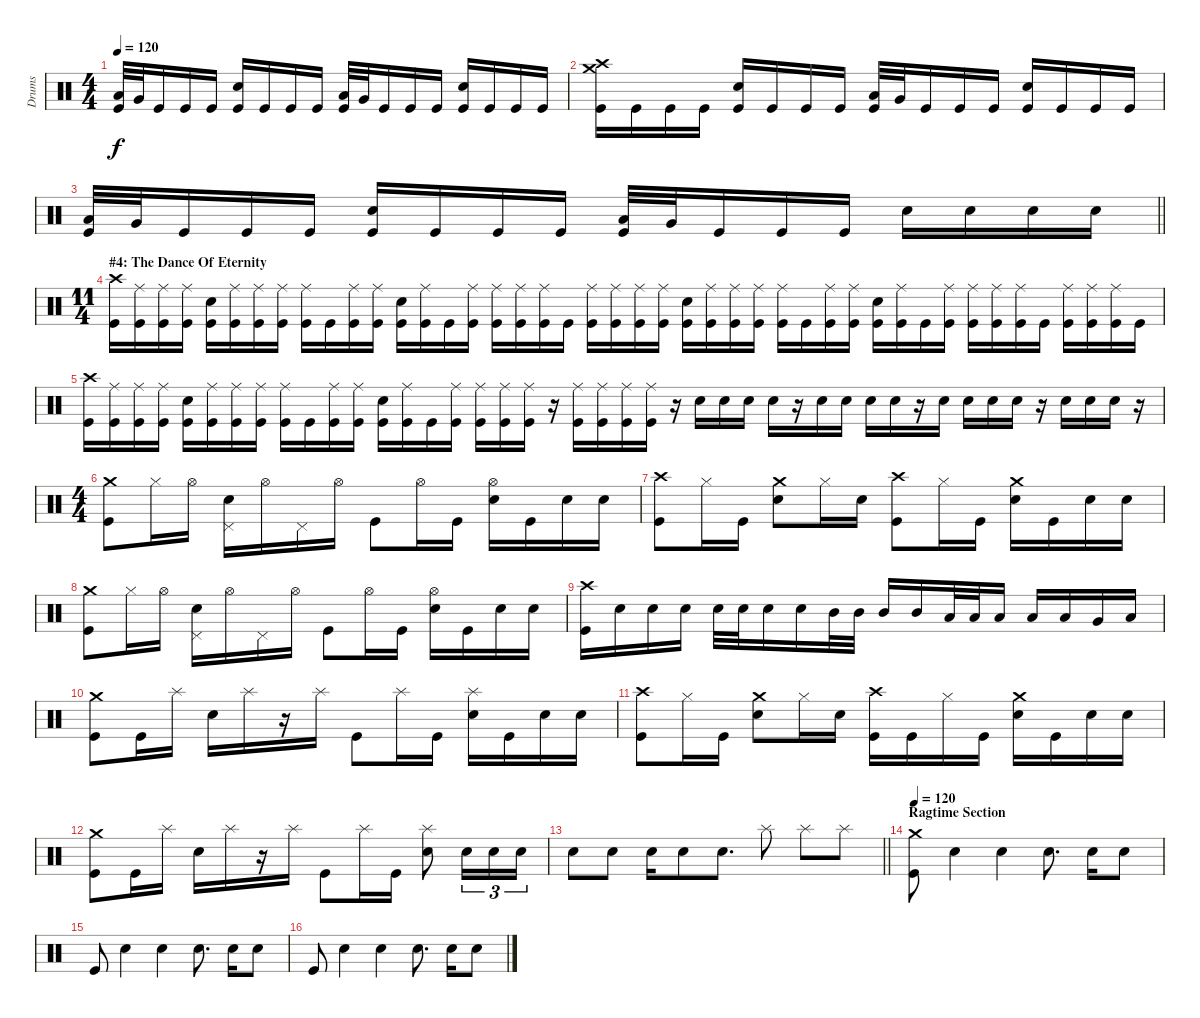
\track ("Drums" "Drums") {instrument percussion}
\staff {score}
\articulation defaults
\ts (4 4)
\tempo 120
\clef neutral
\ks c
("Low Tom (hit)" "Kick (hit)").32{dy f} "Very Low Tom (hit)".32 "Kick (hit)".16 "Kick (hit)".16 "Kick (hit)".16 ("Snare (hit) 2" "Kick (hit)").16 "Kick (hit)".16 "Kick (hit)".16 "Kick (hit)".16 ("Low Tom (hit)" "Kick (hit)").32 "Very Low Tom (hit)".32 "Kick (hit)".16 "Kick (hit)".16 "Kick (hit)".16 ("Snare (hit) 2" "Kick (hit)").16 "Kick (hit)".16 "Kick (hit)".16 "Kick (hit)".16 |
("Crash high (hit)" "Crash medium (hit)" "Kick (hit)").16 "Kick (hit)".16 "Kick (hit)".16 "Kick (hit)".16 ("Snare (hit) 2" "Kick (hit)").16 "Kick (hit)".16 "Kick (hit)".16 "Kick (hit)".16 ("Low Tom (hit)" "Kick (hit)").32 "Very Low Tom (hit)".32 "Kick (hit)".16 "Kick (hit)".16 "Kick (hit)".16 ("Snare (hit) 2" "Kick (hit)").16 "Kick (hit)".16 "Kick (hit)".16 "Kick (hit)".16 |
\barLineRight lightlight
("Low Tom (hit)" "Kick (hit)").32 "Very Low Tom (hit)".32 "Kick (hit)".16 "Kick (hit)".16 "Kick (hit)".16 ("Snare (hit) 2" "Kick (hit)").16 "Kick (hit)".16 "Kick (hit)".16 "Kick (hit)".16 ("Low Tom (hit)" "Kick (hit)").32 "Very Low Tom (hit)".32 "Kick (hit)".16 "Kick (hit)".16 "Kick (hit)".16 "Snare (hit) 2".16 "Snare (hit) 2".16 "Snare (hit) 2".16 "Snare (hit) 2".16 |
\ts (11 4)
\section ("" "#4: The Dance Of Eternity")
("Crash high (hit)" "Kick (hit)").16 ("Ride (middle)" "Kick (hit)").16 ("Ride (middle)" "Kick (hit)").16 ("Ride (middle)" "Kick (hit)").16 ("Snare (hit) 2" "Kick (hit)").16 ("Ride (middle)" "Kick (hit)").16 ("Ride (middle)" "Kick (hit)").16 ("Ride (middle)" "Kick (hit)").16 ("Ride (middle)" "Kick (hit)").16 "Kick (hit)".16 ("Ride (middle)" "Kick (hit)").16 ("Ride (middle)" "Kick (hit)").16 ("Snare (hit) 2" "Kick (hit)").16 ("Ride (middle)" "Kick (hit)").16 "Kick (hit)".16 ("Ride (middle)" "Kick (hit)").16 ("Ride (middle)" "Kick (hit)").16 ("Ride (middle)" "Kick (hit)").16 ("Ride (middle)" "Kick (hit)").16 "Kick (hit)".16 ("Ride (middle)" "Kick (hit)").16 ("Ride (middle)" "Kick (hit)").16 ("Ride (middle)" "Kick (hit)").16 ("Ride (middle)" "Kick (hit)").16 ("Snare (hit) 2" "Kick (hit)").16 ("Ride (middle)" "Kick (hit)").16 ("Ride (middle)" "Kick (hit)").16 ("Ride (middle)" "Kick (hit)").16 ("Ride (middle)" "Kick (hit)").16 "Kick (hit)".16 ("Ride (middle)" "Kick (hit)").16 ("Ride (middle)" "Kick (hit)").16 ("Snare (hit) 2" "Kick (hit)").16 ("Ride (middle)" "Kick (hit)").16 "Kick (hit)".16 ("Ride (middle)" "Kick (hit)").16 ("Ride (middle)" "Kick (hit)").16 ("Ride (middle)" "Kick (hit)").16 ("Ride (middle)" "Kick (hit)").16 "Kick (hit)".16 ("Ride (middle)" "Kick (hit)").16 ("Ride (middle)" "Kick (hit)").16 ("Ride (middle)" "Kick (hit)").16 "Kick (hit)".16 |
("Crash high (hit)" "Kick (hit)").16 ("Ride (middle)" "Kick (hit)").16 ("Ride (middle)" "Kick (hit)").16 ("Ride (middle)" "Kick (hit)").16 ("Snare (hit) 2" "Kick (hit)").16 ("Ride (middle)" "Kick (hit)").16 ("Ride (middle)" "Kick (hit)").16 ("Ride (middle)" "Kick (hit)").16 ("Ride (middle)" "Kick (hit)").16 "Kick (hit)".16 ("Ride (middle)" "Kick (hit)").16 ("Ride (middle)" "Kick (hit)").16 ("Snare (hit) 2" "Kick (hit)").16 ("Ride (middle)" "Kick (hit)").16 "Kick (hit)".16 ("Ride (middle)" "Kick (hit)").16 ("Ride (middle)" "Kick (hit)").16 ("Ride (middle)" "Kick (hit)").16 ("Ride (middle)" "Kick (hit)").16 r.16 ("Ride (middle)" "Kick (hit)").16 ("Ride (middle)" "Kick (hit)").16 ("Ride (middle)" "Kick (hit)").16 ("Ride (middle)" "Kick (hit)").16 r.16 "Snare (hit) 2".16 "Snare (hit) 2".16 "Snare (hit) 2".16 "Snare (hit) 2".16 r.16 "Snare (hit) 2".16 "Snare (hit) 2".16 "Snare (hit) 2".16 "Snare (hit) 2".16 r.16 "Snare (hit) 2".16 "Snare (hit) 2".16 "Snare (hit) 2".16 "Snare (hit) 2".16 r.16 "Snare (hit) 2".16 "Snare (hit) 2".16 "Snare (hit) 2".16 r.16 |
\ts (4 4)
("Crash medium (hit)" "Kick (hit)").8 "Hi-Hat (closed)".16 "Hi-Hat (open)".16 ("Pedal Hi-Hat (hit)" "Snare (hit) 2").16 "Hi-Hat (open)".16 "Pedal Hi-Hat (hit)".16 "Hi-Hat (open)".16 "Kick (hit)".8 "Hi-Hat (open)".16 "Kick (hit)".16 ("Hi-Hat (open)" "Snare (hit) 2").16 "Kick (hit)".16 "Snare (hit) 2".16 "Snare (hit) 2".16 |
("Crash high (hit)" "Kick (hit)").8 "Hi-Hat (closed)".16 "Kick (hit)".16 ("Crash medium (hit)" "Snare (hit) 2").8 "Hi-Hat (closed)".16 "Snare (hit) 2".16 ("Crash high (hit)" "Kick (hit)").8 "Hi-Hat (closed)".16 "Kick (hit)".16 ("Crash medium (hit)" "Snare (hit) 2").16 "Kick (hit)".16 "Snare (hit) 2".16 "Snare (hit) 2".16 |
("Crash medium (hit)" "Kick (hit)").8 "Hi-Hat (closed)".16 "Hi-Hat (open)".16 ("Pedal Hi-Hat (hit)" "Snare (hit) 2").16 "Hi-Hat (open)".16 "Pedal Hi-Hat (hit)".16 "Hi-Hat (open)".16 "Kick (hit)".8 "Hi-Hat (open)".16 "Kick (hit)".16 ("Hi-Hat (open)" "Snare (hit) 2").16 "Kick (hit)".16 "Snare (hit) 2".16 "Snare (hit) 2".16 |
("Crash high (hit)" "Kick (hit)").16 "Snare (hit) 2".16 "Snare (hit) 2".16 "Snare (hit) 2".16 "Snare (hit) 2".32 "Snare (hit) 2".32 "Snare (hit) 2".16 "Snare (hit) 2".16 "Mid Tom (hit)".32 "Mid Tom (hit)".32 "Mid Tom (hit)".16 "Mid Tom (hit)".16 "Low Tom (hit)".32 "Low Tom (hit)".32 "Low Tom (hit)".16 "Low Tom (hit)".16 "Low Tom (hit)".16 "Very Low Tom (hit)".16 "Low Floor Tom (hit)".16 |
("Crash medium (hit)" "Kick (hit)").8 "Kick (hit)".16 "Splash (hit)".16 "Snare (hit) 2".16 "Splash (hit)".16 r.16 "Splash (hit)".16 "Kick (hit)".8 "Splash (hit)".16 "Kick (hit)".16 ("Splash (hit)" "Snare (hit) 2").16 "Kick (hit)".16 "Snare (hit) 2".16 "Snare (hit) 2".16 |
("Crash high (hit)" "Kick (hit)").8 "Hi-Hat (closed)".16 "Kick (hit)".16 ("Crash medium (hit)" "Snare (hit) 2").8 "Hi-Hat (closed)".16 "Snare (hit) 2".16 ("Crash high (hit)" "Kick (hit)").16 "Kick (hit)".16 "Hi-Hat (closed)".16 "Kick (hit)".16 ("Crash medium (hit)" "Snare (hit) 2").16 "Kick (hit)".16 "Snare (hit) 2".16 "Snare (hit) 2".16 |
("Crash medium (hit)" "Kick (hit)").8 "Kick (hit)".16 "Splash (hit)".16 "Snare (hit) 2".16 "Splash (hit)".16 r.16 "Splash (hit)".16 "Kick (hit)".8 "Splash (hit)".16 "Kick (hit)".16 ("Splash (hit)" "Snare (hit) 2").8 "Snare (hit) 2".16{tu (3 2)} "Snare (hit) 2".16{tu (3 2)} "Snare (hit) 2".16{tu (3 2)} |
\barLineRight lightlight "Snare (hit) 2".8 "Snare (hit) 2".8 "Snare (hit) 2".16 "Snare (hit) 2".8 "Snare (hit) 2".8{d} "Splash (hit)".8 "Splash (hit)".8 "Splash (hit)".8
|
\section ("" "Ragtime Section")
\tempo 120
("Crash medium (hit)" "Kick (hit)").8 "Snare (hit) 2".4 "Snare (hit) 2".4 "Snare (hit) 2".8{d} "Snare (hit) 2".16 "Snare (hit) 2".8 |
"Kick (hit)".8 "Snare (hit) 2".4 "Snare (hit) 2".4 "Snare (hit) 2".8{d} "Snare (hit) 2".16 "Snare (hit) 2".8 |
"Kick (hit)".8 "Snare (hit) 2".4 "Snare (hit) 2".4 "Snare (hit) 2".8{d} "Snare (hit) 2".16 "Snare (hit) 2".8
